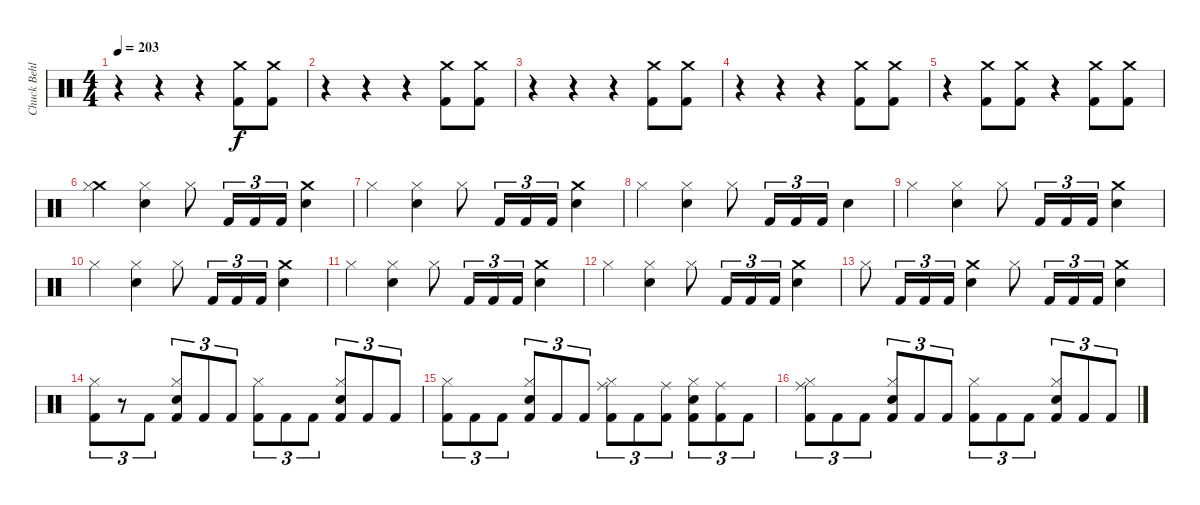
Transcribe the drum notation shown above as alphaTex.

\track ("Chuck Behler" "Chuck Behl") {instrument percussion}
\staff {score}
\articulation defaults
\ts (4 4)
\tempo 203
\clef neutral
\ks c
r.4{dy f volume 0} r.4 r.4 ("Crash medium (hit)" "Kick (hit) 2").8{volume 16} ("Crash medium (hit)" "Kick (hit) 2").8 |
r.4{volume 0} r.4 r.4 ("Crash medium (hit)" "Kick (hit) 2").8{volume 16} ("Crash medium (hit)" "Kick (hit) 2").8 |
r.4{volume 0} r.4 r.4 ("Crash medium (hit)" "Kick (hit) 2").8{volume 16} ("Crash medium (hit)" "Kick (hit) 2").8 |
r.4{volume 0} r.4 r.4 ("Crash medium (hit)" "Kick (hit) 2").8{volume 16} ("Crash medium (hit)" "Kick (hit) 2").8 |
r.4 ("Crash medium (hit)" "Kick (hit) 2").8 ("Crash medium (hit)" "Kick (hit) 2").8 r.4 ("Crash medium (hit)" "Kick (hit) 2").8 ("Crash medium (hit)" "Kick (hit) 2").8 |
("Crash medium (hit)" "Hi-Hat (closed)").4 ("Hi-Hat (closed)" "Snare (hit) 2").4 "Hi-Hat (closed)".8 "Kick (hit) 2".16{tu (3 2)} "Kick (hit) 2".16{tu (3 2)} "Kick (hit) 2".16{tu (3 2)} ("Crash medium (hit)" "Snare (hit) 2").4 |
"Hi-Hat (closed)".4 ("Hi-Hat (closed)" "Snare (hit) 2").4 "Hi-Hat (closed)".8 "Kick (hit) 2".16{tu (3 2)} "Kick (hit) 2".16{tu (3 2)} "Kick (hit) 2".16{tu (3 2)} ("Crash medium (hit)" "Snare (hit) 2").4 |
"Hi-Hat (closed)".4 ("Hi-Hat (closed)" "Snare (hit) 2").4 "Hi-Hat (closed)".8 "Kick (hit) 2".16{tu (3 2)} "Kick (hit) 2".16{tu (3 2)} "Kick (hit) 2".16{tu (3 2)} "Snare (hit) 2".4 |
"Hi-Hat (closed)".4 ("Hi-Hat (closed)" "Snare (hit) 2").4 "Hi-Hat (closed)".8 "Kick (hit) 2".16{tu (3 2)} "Kick (hit) 2".16{tu (3 2)} "Kick (hit) 2".16{tu (3 2)} ("Crash medium (hit)" "Snare (hit) 2").4 |
"Hi-Hat (closed)".4 ("Hi-Hat (closed)" "Snare (hit) 2").4 "Hi-Hat (closed)".8 "Kick (hit) 2".16{tu (3 2)} "Kick (hit) 2".16{tu (3 2)} "Kick (hit) 2".16{tu (3 2)} ("Crash medium (hit)" "Snare (hit) 2").4 |
"Hi-Hat (closed)".4 ("Hi-Hat (closed)" "Snare (hit) 2").4 "Hi-Hat (closed)".8 "Kick (hit) 2".16{tu (3 2)} "Kick (hit) 2".16{tu (3 2)} "Kick (hit) 2".16{tu (3 2)} ("Crash medium (hit)" "Snare (hit) 2").4 |
"Hi-Hat (closed)".4 ("Hi-Hat (closed)" "Snare (hit) 2").4 "Hi-Hat (closed)".8 "Kick (hit) 2".16{tu (3 2)} "Kick (hit) 2".16{tu (3 2)} "Kick (hit) 2".16{tu (3 2)} ("Crash medium (hit)" "Snare (hit) 2").4 |
"Hi-Hat (closed)".8 "Kick (hit) 2".16{tu (3 2)} "Kick (hit) 2".16{tu (3 2)} "Kick (hit) 2".16{tu (3 2)} ("Crash medium (hit)" "Snare (hit) 2").4 "Hi-Hat (closed)".8 "Kick (hit) 2".16{tu (3 2)} "Kick (hit) 2".16{tu (3 2)} "Kick (hit) 2".16{tu (3 2)} ("Crash medium (hit)" "Snare (hit) 2").4 |
("Hi-Hat (closed)" "Kick (hit) 2").8{tu (3 2)} r.8{tu (3 2)} "Kick (hit) 2".8{tu (3 2)} ("Hi-Hat (closed)" "Snare (hit) 2" "Kick (hit) 2").8{tu (3 2)} "Kick (hit) 2".8{tu (3 2)} "Kick (hit) 2".8{tu (3 2)} ("Hi-Hat (closed)" "Kick (hit) 2").8{tu (3 2)} "Kick (hit) 2".8{tu (3 2)} "Kick (hit) 2".8{tu (3 2)} ("Hi-Hat (closed)" "Snare (hit) 2" "Kick (hit) 2").8{tu (3 2)} "Kick (hit) 2".8{tu (3 2)} "Kick (hit) 2".8{tu (3 2)} |
("Hi-Hat (closed)" "Kick (hit) 2").8{tu (3 2)} "Kick (hit) 2".8{tu (3 2)} "Kick (hit) 2".8{tu (3 2)} ("Hi-Hat (closed)" "Snare (hit) 2" "Kick (hit) 2").8{tu (3 2)} "Kick (hit) 2".8{tu (3 2)} "Kick (hit) 2".8{tu (3 2)} ("Ride (middle)" "Hi-Hat (closed)" "Kick (hit) 2").8{tu (3 2)} "Kick (hit) 2".8{tu (3 2)} ("Ride (middle)" "Kick (hit) 2").8{tu (3 2)} ("Hi-Hat (closed)" "Snare (hit) 2" "Kick (hit) 2").8{tu (3 2)} ("Ride (middle)" "Kick (hit) 2").8{tu (3 2)} "Kick (hit) 2".8{tu (3 2)} |
("Ride (middle)" "Hi-Hat (closed)" "Kick (hit) 2").8{tu (3 2)} "Kick (hit) 2".8{tu (3 2)} "Kick (hit) 2".8{tu (3 2)} ("Hi-Hat (closed)" "Snare (hit) 2" "Kick (hit) 2").8{tu (3 2)} "Kick (hit) 2".8{tu (3 2)} "Kick (hit) 2".8{tu (3 2)} ("Hi-Hat (closed)" "Kick (hit) 2").8{tu (3 2)} "Kick (hit) 2".8{tu (3 2)} "Kick (hit) 2".8{tu (3 2)} ("Hi-Hat (closed)" "Snare (hit) 2" "Kick (hit) 2").8{tu (3 2)} "Kick (hit) 2".8{tu (3 2)} "Kick (hit) 2".8{tu (3 2)}
